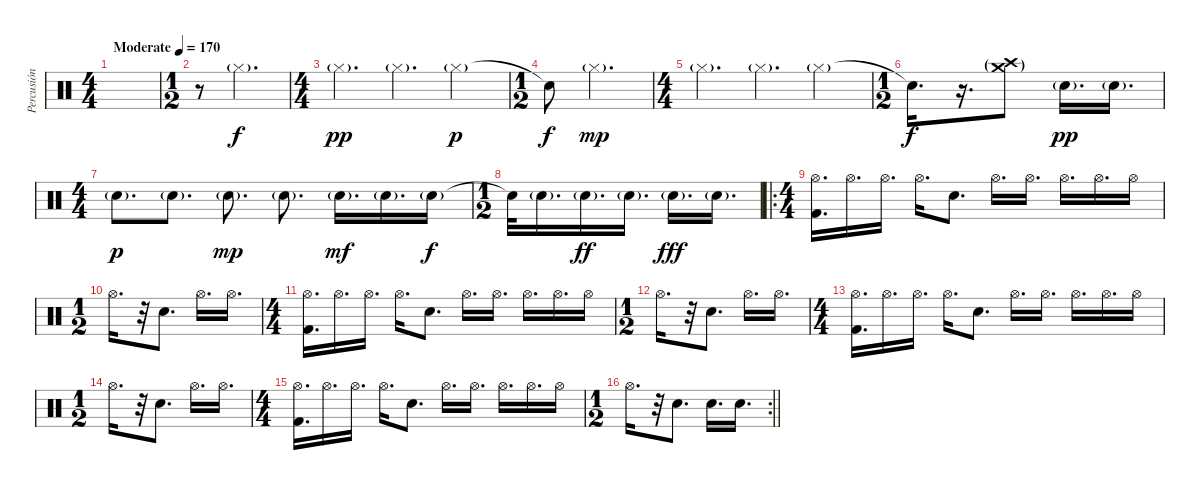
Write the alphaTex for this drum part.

\track ("Percusión" "Percusión") {instrument percussion}
\staff {score}
\articulation defaults
\ts (4 4)
\tempo (170 "Moderate")
\clef neutral
\ks c
|
\ts (1 2)
r.8 "Hi-Hat (closed)"{g}.4{d} |
\ts (4 4)
"Hi-Hat (closed)"{g}.4{d dy pp} "Hi-Hat (closed)"{g}.4{d} "Hi-Hat (closed)"{g}.4{dy p} |
\ts (1 2)
"Snare (hit)"{t}.8{dy f} "Hi-Hat (closed)"{g}.4{d dy mp} |
\ts (4 4)
"Hi-Hat (closed)"{g}.4{d} "Hi-Hat (closed)"{g}.4{d} "Hi-Hat (closed)"{g}.4 |
\ts (1 2)
"Snare (hit)"{t}.16{d dy f} r.16{d} ("Crash medium (hit)"{g} "Crash high (hit)"{g}).8 "Snare (hit) 2"{g}.16{d dy pp} "Snare (hit) 2"{g}.16{d} |
\ts (4 4)
"Snare (hit) 2"{g}.8{d dy p} "Snare (hit) 2"{g}.8{d} "Snare (hit) 2"{g}.8{d dy mp} "Snare (hit) 2"{g}.8{d} "Snare (hit) 2"{g}.16{d dy mf} "Snare (hit) 2"{g}.16{d} "Snare (hit) 2"{g}.16{dy f} |
\ts (1 2)
"Snare (hit) 2"{t}.32 "Snare (hit) 2"{g}.16{d} "Snare (hit) 2"{g}.16{d dy ff} "Snare (hit) 2"{g}.16{d} "Snare (hit) 2"{g}.16{d dy fff} "Snare (hit) 2"{g}.16{d} |
\ro
\ts (4 4)
("Hi-Hat (open)" "Kick (hit) 2").16{d} "Hi-Hat (open)".16{d} "Hi-Hat (open)".16{d} "Hi-Hat (open)".16{d} "Electric Snare (hit)".8{d} "Hi-Hat (open)".16{d} "Hi-Hat (open)".16{d} "Hi-Hat (open)".16{d} "Hi-Hat (open)".16{d} "Hi-Hat (open)".16 |
\ts (1 2)
"Hi-Hat (open)".16{d} r.32 "Electric Snare (hit)".8{d} "Hi-Hat (open)".16{d} "Hi-Hat (open)".16{d} |
\ts (4 4)
("Hi-Hat (open)" "Kick (hit) 2").16{d} "Hi-Hat (open)".16{d} "Hi-Hat (open)".16{d} "Hi-Hat (open)".16{d} "Electric Snare (hit)".8{d} "Hi-Hat (open)".16{d} "Hi-Hat (open)".16{d} "Hi-Hat (open)".16{d} "Hi-Hat (open)".16{d} "Hi-Hat (open)".16 |
\ts (1 2)
"Hi-Hat (open)".16{d} r.32 "Electric Snare (hit)".8{d} "Hi-Hat (open)".16{d} "Hi-Hat (open)".16{d} |
\ts (4 4)
("Hi-Hat (open)" "Kick (hit) 2").16{d} "Hi-Hat (open)".16{d} "Hi-Hat (open)".16{d} "Hi-Hat (open)".16{d} "Electric Snare (hit)".8{d} "Hi-Hat (open)".16{d} "Hi-Hat (open)".16{d} "Hi-Hat (open)".16{d} "Hi-Hat (open)".16{d} "Hi-Hat (open)".16 |
\ts (1 2)
"Hi-Hat (open)".16{d} r.32 "Electric Snare (hit)".8{d} "Hi-Hat (open)".16{d} "Hi-Hat (open)".16{d} |
\ts (4 4)
("Hi-Hat (open)" "Kick (hit) 2").16{d} "Hi-Hat (open)".16{d} "Hi-Hat (open)".16{d} "Hi-Hat (open)".16{d} "Electric Snare (hit)".8{d} "Hi-Hat (open)".16{d} "Hi-Hat (open)".16{d} "Hi-Hat (open)".16{d} "Hi-Hat (open)".16{d} "Hi-Hat (open)".16 |
\rc 2
\ts (1 2)
\barLineRight lightlight "Hi-Hat (open)".16{d}
r.32 "Electric Snare (hit)".8{d} "Electric Snare (hit)".16{d} "Electric Snare (hit)".16{d}
